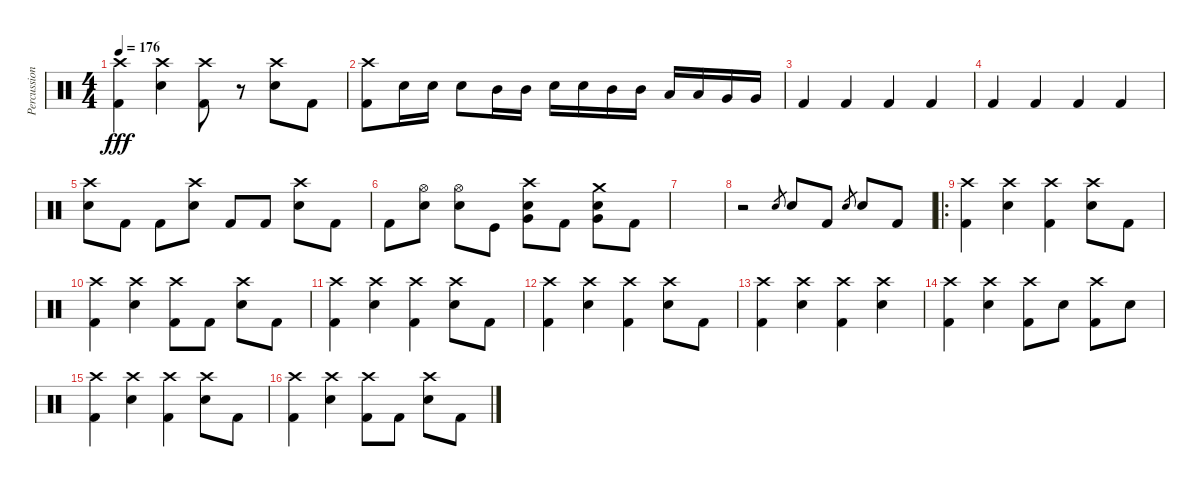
\track ("Percussion" "Percussion") {instrument percussion}
\staff {score}
\articulation defaults
\ts (4 4)
\tempo 176
\clef neutral
\ks c
("Crash high (hit)" "Kick (hit) 2").4{dy fff} ("Crash high (hit)" "Snare (hit) 2").4 ("Crash high (hit)" "Kick (hit) 2").8 r.8 ("Crash high (hit)" "Snare (hit) 2").8 "Kick (hit) 2".8 |
("Crash high (hit)" "Kick (hit) 2").8 "Snare (hit) 2".16 "Snare (hit) 2".16 "Snare (hit) 2".8 "Mid Tom (hit)".16 "Mid Tom (hit)".16 "Snare (hit) 2".16 "Snare (hit) 2".16 "Mid Tom (hit)".16 "Mid Tom (hit)".16 "Low Tom (hit)".16 "Low Tom (hit)".16 "Very Low Tom (hit)".16 "Very Low Tom (hit)".16 |
"Kick (hit) 2".4 "Kick (hit) 2".4 "Kick (hit) 2".4 "Kick (hit) 2".4 |
"Kick (hit) 2".4 "Kick (hit) 2".4 "Kick (hit) 2".4 "Kick (hit) 2".4 |
("Crash high (hit)" "Snare (hit) 2").8 "Kick (hit) 2".8 "Kick (hit) 2".8 ("Crash high (hit)" "Snare (hit) 2").8 "Kick (hit) 2".8 "Kick (hit) 2".8 ("Crash high (hit)" "Snare (hit) 2").8 "Kick (hit) 2".8 |
"Kick (hit) 2".8 ("Hi-Hat (open)" "Snare (hit) 2").8 ("Hi-Hat (open)" "Snare (hit) 2").8 "Kick (hit)".8 ("Crash high (hit)" "Snare (hit) 2" "Very Low Tom (hit)").8 "Kick (hit) 2".8 ("Crash medium (hit)" "Snare (hit) 2" "Very Low Tom (hit)").8 "Kick (hit) 2".8 |
|
r.2 "Snare (hit) 2".8{gr} "Snare (hit) 2".8 "Kick (hit) 2".8 "Snare (hit) 2".8{gr} "Snare (hit) 2".8 "Kick (hit) 2".8 |
\ro
("Crash high (hit)" "Kick (hit) 2").4 ("Crash high (hit)" "Snare (hit) 2").4 ("Crash high (hit)" "Kick (hit) 2").4 ("Crash high (hit)" "Snare (hit) 2").8 "Kick (hit) 2".8 |
("Crash high (hit)" "Kick (hit) 2").4 ("Crash high (hit)" "Snare (hit) 2").4 ("Crash high (hit)" "Kick (hit) 2").8 "Kick (hit) 2".8 ("Crash high (hit)" "Snare (hit) 2").8 "Kick (hit) 2".8 |
("Crash high (hit)" "Kick (hit) 2").4 ("Crash high (hit)" "Snare (hit) 2").4 ("Crash high (hit)" "Kick (hit) 2").4 ("Crash high (hit)" "Snare (hit) 2").8 "Kick (hit) 2".8 |
("Crash high (hit)" "Kick (hit) 2").4 ("Crash high (hit)" "Snare (hit) 2").4 ("Crash high (hit)" "Kick (hit) 2").4 ("Crash high (hit)" "Snare (hit) 2").8 "Kick (hit) 2".8 |
("Crash high (hit)" "Kick (hit) 2").4 ("Crash high (hit)" "Snare (hit) 2").4 ("Crash high (hit)" "Kick (hit) 2").4 ("Crash high (hit)" "Snare (hit) 2").4 |
("Crash high (hit)" "Kick (hit) 2").4 ("Crash high (hit)" "Snare (hit) 2").4 ("Crash high (hit)" "Kick (hit) 2").8 "Snare (hit) 2".8 ("Crash high (hit)" "Kick (hit) 2").8 "Snare (hit) 2".8 |
("Crash high (hit)" "Kick (hit) 2").4 ("Crash high (hit)" "Snare (hit) 2").4 ("Crash high (hit)" "Kick (hit) 2").4 ("Crash high (hit)" "Snare (hit) 2").8 "Kick (hit) 2".8 |
("Crash high (hit)" "Kick (hit) 2").4 ("Crash high (hit)" "Snare (hit) 2").4 ("Crash high (hit)" "Kick (hit) 2").8 "Kick (hit) 2".8 ("Crash high (hit)" "Snare (hit) 2").8 "Kick (hit) 2".8
